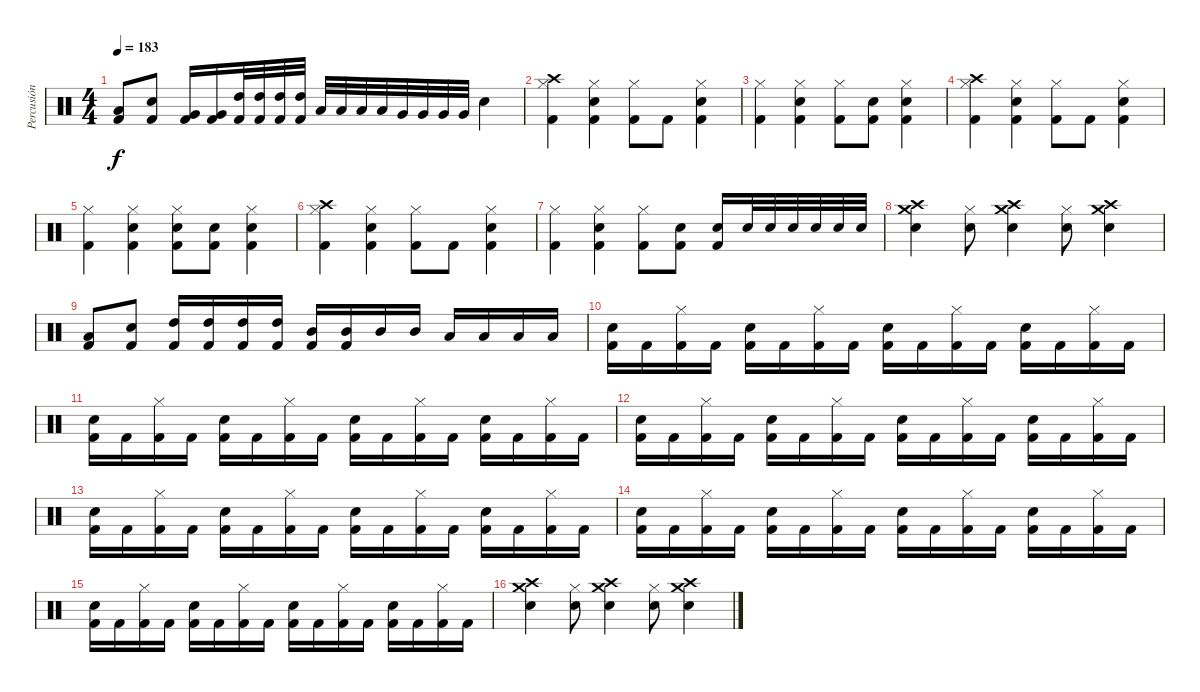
\track ("Percusión" "Percusión") {instrument percussion}
\staff {score}
\articulation defaults
\ts (4 4)
\tempo 183
\clef neutral
\ks c
("Kick (hit) 2" "Low Floor Tom (hit)").8{dy f} ("Kick (hit) 2" "Electric Snare (hit)").8 ("Kick (hit) 2" "Very Low Tom (hit)").16 ("Kick (hit) 2" "Very Low Tom (hit)").16 ("Kick (hit) 2" "High Tom (hit)").32 ("Kick (hit) 2" "High Tom (hit)").32 ("Kick (hit) 2" "High Tom (hit)").32 ("Kick (hit) 2" "High Tom (hit)").32 "Low Tom (hit)".32 "Low Tom (hit)".32 "Low Tom (hit)".32 "Low Tom (hit)".32 "Very Low Tom (hit)".32 "Very Low Tom (hit)".32 "Very Low Tom (hit)".32 "Very Low Tom (hit)".32 "Electric Snare (hit)".4 |
("Kick (hit) 2" "Hi-Hat (closed)" "Crash high (hit)").4 ("Kick (hit) 2" "Electric Snare (hit)" "Hi-Hat (closed)").4 ("Kick (hit) 2" "Hi-Hat (closed)").8 "Kick (hit) 2".8 ("Kick (hit) 2" "Electric Snare (hit)" "Hi-Hat (closed)").4 |
("Kick (hit) 2" "Hi-Hat (closed)").4 ("Kick (hit) 2" "Electric Snare (hit)" "Hi-Hat (closed)").4 ("Kick (hit) 2" "Hi-Hat (closed)").8 ("Kick (hit) 2" "Electric Snare (hit)").8 ("Kick (hit) 2" "Electric Snare (hit)" "Hi-Hat (closed)").4 |
("Kick (hit) 2" "Hi-Hat (closed)" "Crash high (hit)").4 ("Kick (hit) 2" "Electric Snare (hit)" "Hi-Hat (closed)").4 ("Kick (hit) 2" "Hi-Hat (closed)").8 "Kick (hit) 2".8 ("Kick (hit) 2" "Electric Snare (hit)" "Hi-Hat (closed)").4 |
("Kick (hit) 2" "Hi-Hat (closed)").4 ("Kick (hit) 2" "Electric Snare (hit)" "Hi-Hat (closed)").4 ("Kick (hit) 2" "Electric Snare (hit)" "Hi-Hat (closed)").8 ("Kick (hit) 2" "Electric Snare (hit)").8 ("Kick (hit) 2" "Electric Snare (hit)" "Hi-Hat (closed)").4 |
("Kick (hit) 2" "Hi-Hat (closed)" "Crash high (hit)").4 ("Kick (hit) 2" "Electric Snare (hit)" "Hi-Hat (closed)").4 ("Kick (hit) 2" "Hi-Hat (closed)").8 "Kick (hit) 2".8 ("Kick (hit) 2" "Electric Snare (hit)" "Hi-Hat (closed)").4 |
("Kick (hit) 2" "Hi-Hat (closed)").4 ("Kick (hit) 2" "Electric Snare (hit)" "Hi-Hat (closed)").4 ("Kick (hit) 2" "Hi-Hat (closed)").8 ("Kick (hit) 2" "Electric Snare (hit)").8 ("Kick (hit) 2" "Electric Snare (hit)").16 "Electric Snare (hit)".32 "Electric Snare (hit)".32 "Electric Snare (hit)".32 "Electric Snare (hit)".32 "Electric Snare (hit)".32 "Electric Snare (hit)".32 |
("Electric Snare (hit)" "Crash medium (hit)" "Crash high (hit)").4 ("Electric Snare (hit)" "Hi-Hat (closed)").8 ("Electric Snare (hit)" "Crash medium (hit)" "Crash high (hit)").4 ("Electric Snare (hit)" "Hi-Hat (closed)").8 ("Electric Snare (hit)" "Crash medium (hit)" "Crash high (hit)").4 |
("Kick (hit) 2" "Low Floor Tom (hit)").8 ("Kick (hit) 2" "Electric Snare (hit)").8 ("Kick (hit) 2" "High Tom (hit)").16 ("Kick (hit) 2" "High Tom (hit)").16 ("Kick (hit) 2" "High Tom (hit)").16 ("Kick (hit) 2" "High Tom (hit)").16 ("Kick (hit) 2" "Mid Tom (hit)").16 ("Kick (hit) 2" "Mid Tom (hit)").16 "Mid Tom (hit)".16 "Mid Tom (hit)".16 "Low Tom (hit)".16 "Low Tom (hit)".16 "Low Tom (hit)".16 "Low Tom (hit)".16 |
("Kick (hit) 2" "Electric Snare (hit)").16 "Kick (hit) 2".16 ("Kick (hit) 2" "Hi-Hat (closed)").16 "Kick (hit) 2".16 ("Kick (hit) 2" "Electric Snare (hit)").16 "Kick (hit) 2".16 ("Kick (hit) 2" "Hi-Hat (closed)").16 "Kick (hit) 2".16 ("Kick (hit) 2" "Electric Snare (hit)").16 "Kick (hit) 2".16 ("Kick (hit) 2" "Hi-Hat (closed)").16 "Kick (hit) 2".16 ("Kick (hit) 2" "Electric Snare (hit)").16 "Kick (hit) 2".16 ("Kick (hit) 2" "Hi-Hat (closed)").16 "Kick (hit) 2".16 |
("Kick (hit) 2" "Electric Snare (hit)").16 "Kick (hit) 2".16 ("Kick (hit) 2" "Hi-Hat (closed)").16 "Kick (hit) 2".16 ("Kick (hit) 2" "Electric Snare (hit)").16 "Kick (hit) 2".16 ("Kick (hit) 2" "Hi-Hat (closed)").16 "Kick (hit) 2".16 ("Kick (hit) 2" "Electric Snare (hit)").16 "Kick (hit) 2".16 ("Kick (hit) 2" "Hi-Hat (closed)").16 "Kick (hit) 2".16 ("Kick (hit) 2" "Electric Snare (hit)").16 "Kick (hit) 2".16 ("Kick (hit) 2" "Hi-Hat (closed)").16 "Kick (hit) 2".16 |
("Kick (hit) 2" "Electric Snare (hit)").16 "Kick (hit) 2".16 ("Kick (hit) 2" "Hi-Hat (closed)").16 "Kick (hit) 2".16 ("Kick (hit) 2" "Electric Snare (hit)").16 "Kick (hit) 2".16 ("Kick (hit) 2" "Hi-Hat (closed)").16 "Kick (hit) 2".16 ("Kick (hit) 2" "Electric Snare (hit)").16 "Kick (hit) 2".16 ("Kick (hit) 2" "Hi-Hat (closed)").16 "Kick (hit) 2".16 ("Kick (hit) 2" "Electric Snare (hit)").16 "Kick (hit) 2".16 ("Kick (hit) 2" "Hi-Hat (closed)").16 "Kick (hit) 2".16 |
("Kick (hit) 2" "Electric Snare (hit)").16 "Kick (hit) 2".16 ("Kick (hit) 2" "Hi-Hat (closed)").16 "Kick (hit) 2".16 ("Kick (hit) 2" "Electric Snare (hit)").16 "Kick (hit) 2".16 ("Kick (hit) 2" "Hi-Hat (closed)").16 "Kick (hit) 2".16 ("Kick (hit) 2" "Electric Snare (hit)").16 "Kick (hit) 2".16 ("Kick (hit) 2" "Hi-Hat (closed)").16 "Kick (hit) 2".16 ("Kick (hit) 2" "Electric Snare (hit)").16 "Kick (hit) 2".16 ("Kick (hit) 2" "Hi-Hat (closed)").16 "Kick (hit) 2".16 |
("Kick (hit) 2" "Electric Snare (hit)").16 "Kick (hit) 2".16 ("Kick (hit) 2" "Hi-Hat (closed)").16 "Kick (hit) 2".16 ("Kick (hit) 2" "Electric Snare (hit)").16 "Kick (hit) 2".16 ("Kick (hit) 2" "Hi-Hat (closed)").16 "Kick (hit) 2".16 ("Kick (hit) 2" "Electric Snare (hit)").16 "Kick (hit) 2".16 ("Kick (hit) 2" "Hi-Hat (closed)").16 "Kick (hit) 2".16 ("Kick (hit) 2" "Electric Snare (hit)").16 "Kick (hit) 2".16 ("Kick (hit) 2" "Hi-Hat (closed)").16 "Kick (hit) 2".16 |
("Kick (hit) 2" "Electric Snare (hit)").16 "Kick (hit) 2".16 ("Kick (hit) 2" "Hi-Hat (closed)").16 "Kick (hit) 2".16 ("Kick (hit) 2" "Electric Snare (hit)").16 "Kick (hit) 2".16 ("Kick (hit) 2" "Hi-Hat (closed)").16 "Kick (hit) 2".16 ("Kick (hit) 2" "Electric Snare (hit)").16 "Kick (hit) 2".16 ("Kick (hit) 2" "Hi-Hat (closed)").16 "Kick (hit) 2".16 ("Kick (hit) 2" "Electric Snare (hit)").16 "Kick (hit) 2".16 ("Kick (hit) 2" "Hi-Hat (closed)").16 "Kick (hit) 2".16 |
("Electric Snare (hit)" "Crash medium (hit)" "Crash high (hit)").4 ("Electric Snare (hit)" "Hi-Hat (closed)").8 ("Electric Snare (hit)" "Crash medium (hit)" "Crash high (hit)").4 ("Electric Snare (hit)" "Hi-Hat (closed)").8 ("Electric Snare (hit)" "Crash medium (hit)" "Crash high (hit)").4
